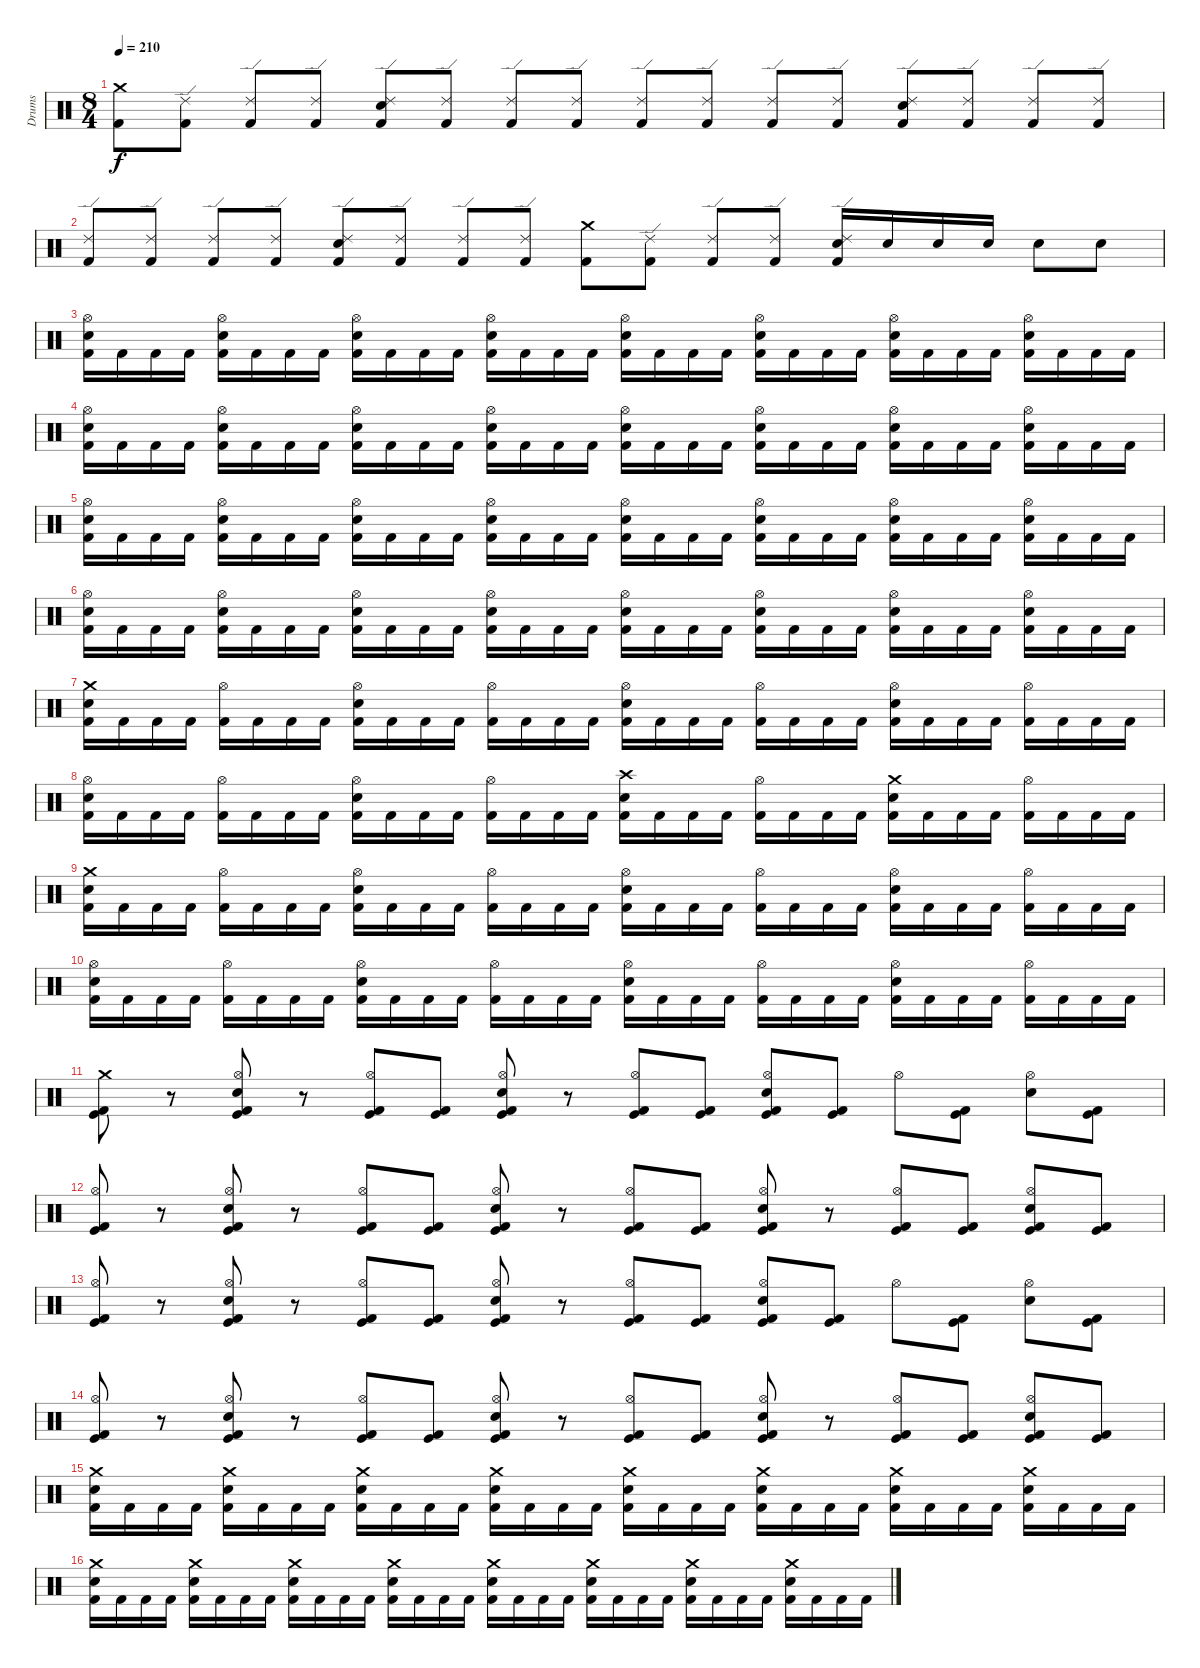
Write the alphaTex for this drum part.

\track ("Drums" "Drums") {instrument percussion}
\staff {score}
\articulation defaults
\ts (8 4)
\tempo 210
\clef neutral
\ks c
("Crash medium (hit)" "Kick (hit) 2").8{dy f} ("Ride (edge) 2" "Kick (hit) 2").8 ("Ride (edge) 2" "Kick (hit) 2").8 ("Ride (edge) 2" "Kick (hit) 2").8 ("Ride (edge) 2" "Electric Snare (hit)" "Kick (hit) 2").8 ("Ride (edge) 2" "Kick (hit) 2").8 ("Ride (edge) 2" "Kick (hit) 2").8 ("Ride (edge) 2" "Kick (hit) 2").8 ("Ride (edge) 2" "Kick (hit) 2").8 ("Ride (edge) 2" "Kick (hit) 2").8 ("Ride (edge) 2" "Kick (hit) 2").8 ("Ride (edge) 2" "Kick (hit) 2").8 ("Ride (edge) 2" "Electric Snare (hit)" "Kick (hit) 2").8 ("Ride (edge) 2" "Kick (hit) 2").8 ("Ride (edge) 2" "Kick (hit) 2").8 ("Ride (edge) 2" "Kick (hit) 2").8 |
("Ride (edge) 2" "Kick (hit) 2").8 ("Ride (edge) 2" "Kick (hit) 2").8 ("Ride (edge) 2" "Kick (hit) 2").8 ("Ride (edge) 2" "Kick (hit) 2").8 ("Ride (edge) 2" "Electric Snare (hit)" "Kick (hit) 2").8 ("Ride (edge) 2" "Kick (hit) 2").8 ("Ride (edge) 2" "Kick (hit) 2").8 ("Ride (edge) 2" "Kick (hit) 2").8 ("Crash medium (hit)" "Kick (hit) 2").8 ("Ride (edge) 2" "Kick (hit) 2").8 ("Ride (edge) 2" "Kick (hit) 2").8 ("Ride (edge) 2" "Kick (hit) 2").8 ("Ride (edge) 2" "Electric Snare (hit)" "Kick (hit) 2").16 "Electric Snare (hit)".16 "Electric Snare (hit)".16 "Electric Snare (hit)".16 "Electric Snare (hit)".8 "Electric Snare (hit)".8 |
("Hi-Hat (open)" "Electric Snare (hit)" "Kick (hit) 2").16 "Kick (hit) 2".16 "Kick (hit) 2".16 "Kick (hit) 2".16 ("Hi-Hat (open)" "Electric Snare (hit)" "Kick (hit) 2").16 "Kick (hit) 2".16 "Kick (hit) 2".16 "Kick (hit) 2".16 ("Hi-Hat (open)" "Electric Snare (hit)" "Kick (hit) 2").16 "Kick (hit) 2".16 "Kick (hit) 2".16 "Kick (hit) 2".16 ("Hi-Hat (open)" "Electric Snare (hit)" "Kick (hit) 2").16 "Kick (hit) 2".16 "Kick (hit) 2".16 "Kick (hit) 2".16 ("Hi-Hat (open)" "Electric Snare (hit)" "Kick (hit) 2").16 "Kick (hit) 2".16 "Kick (hit) 2".16 "Kick (hit) 2".16 ("Hi-Hat (open)" "Electric Snare (hit)" "Kick (hit) 2").16 "Kick (hit) 2".16 "Kick (hit) 2".16 "Kick (hit) 2".16 ("Hi-Hat (open)" "Electric Snare (hit)" "Kick (hit) 2").16 "Kick (hit) 2".16 "Kick (hit) 2".16 "Kick (hit) 2".16 ("Hi-Hat (open)" "Electric Snare (hit)" "Kick (hit) 2").16 "Kick (hit) 2".16 "Kick (hit) 2".16 "Kick (hit) 2".16 |
("Hi-Hat (open)" "Electric Snare (hit)" "Kick (hit) 2").16 "Kick (hit) 2".16 "Kick (hit) 2".16 "Kick (hit) 2".16 ("Hi-Hat (open)" "Electric Snare (hit)" "Kick (hit) 2").16 "Kick (hit) 2".16 "Kick (hit) 2".16 "Kick (hit) 2".16 ("Hi-Hat (open)" "Electric Snare (hit)" "Kick (hit) 2").16 "Kick (hit) 2".16 "Kick (hit) 2".16 "Kick (hit) 2".16 ("Hi-Hat (open)" "Electric Snare (hit)" "Kick (hit) 2").16 "Kick (hit) 2".16 "Kick (hit) 2".16 "Kick (hit) 2".16 ("Hi-Hat (open)" "Electric Snare (hit)" "Kick (hit) 2").16 "Kick (hit) 2".16 "Kick (hit) 2".16 "Kick (hit) 2".16 ("Hi-Hat (open)" "Electric Snare (hit)" "Kick (hit) 2").16 "Kick (hit) 2".16 "Kick (hit) 2".16 "Kick (hit) 2".16 ("Hi-Hat (open)" "Electric Snare (hit)" "Kick (hit) 2").16 "Kick (hit) 2".16 "Kick (hit) 2".16 "Kick (hit) 2".16 ("Hi-Hat (open)" "Electric Snare (hit)" "Kick (hit) 2").16 "Kick (hit) 2".16 "Kick (hit) 2".16 "Kick (hit) 2".16 |
("Hi-Hat (open)" "Electric Snare (hit)" "Kick (hit) 2").16 "Kick (hit) 2".16 "Kick (hit) 2".16 "Kick (hit) 2".16 ("Hi-Hat (open)" "Electric Snare (hit)" "Kick (hit) 2").16 "Kick (hit) 2".16 "Kick (hit) 2".16 "Kick (hit) 2".16 ("Hi-Hat (open)" "Electric Snare (hit)" "Kick (hit) 2").16 "Kick (hit) 2".16 "Kick (hit) 2".16 "Kick (hit) 2".16 ("Hi-Hat (open)" "Electric Snare (hit)" "Kick (hit) 2").16 "Kick (hit) 2".16 "Kick (hit) 2".16 "Kick (hit) 2".16 ("Hi-Hat (open)" "Electric Snare (hit)" "Kick (hit) 2").16 "Kick (hit) 2".16 "Kick (hit) 2".16 "Kick (hit) 2".16 ("Hi-Hat (open)" "Electric Snare (hit)" "Kick (hit) 2").16 "Kick (hit) 2".16 "Kick (hit) 2".16 "Kick (hit) 2".16 ("Hi-Hat (open)" "Electric Snare (hit)" "Kick (hit) 2").16 "Kick (hit) 2".16 "Kick (hit) 2".16 "Kick (hit) 2".16 ("Hi-Hat (open)" "Electric Snare (hit)" "Kick (hit) 2").16 "Kick (hit) 2".16 "Kick (hit) 2".16 "Kick (hit) 2".16 |
("Hi-Hat (open)" "Electric Snare (hit)" "Kick (hit) 2").16 "Kick (hit) 2".16 "Kick (hit) 2".16 "Kick (hit) 2".16 ("Hi-Hat (open)" "Electric Snare (hit)" "Kick (hit) 2").16 "Kick (hit) 2".16 "Kick (hit) 2".16 "Kick (hit) 2".16 ("Hi-Hat (open)" "Electric Snare (hit)" "Kick (hit) 2").16 "Kick (hit) 2".16 "Kick (hit) 2".16 "Kick (hit) 2".16 ("Hi-Hat (open)" "Electric Snare (hit)" "Kick (hit) 2").16 "Kick (hit) 2".16 "Kick (hit) 2".16 "Kick (hit) 2".16 ("Hi-Hat (open)" "Electric Snare (hit)" "Kick (hit) 2").16 "Kick (hit) 2".16 "Kick (hit) 2".16 "Kick (hit) 2".16 ("Hi-Hat (open)" "Electric Snare (hit)" "Kick (hit) 2").16 "Kick (hit) 2".16 "Kick (hit) 2".16 "Kick (hit) 2".16 ("Hi-Hat (open)" "Electric Snare (hit)" "Kick (hit) 2").16 "Kick (hit) 2".16 "Kick (hit) 2".16 "Kick (hit) 2".16 ("Hi-Hat (open)" "Electric Snare (hit)" "Kick (hit) 2").16 "Kick (hit) 2".16 "Kick (hit) 2".16 "Kick (hit) 2".16 |
("Crash medium (hit)" "Electric Snare (hit)" "Kick (hit) 2").16 "Kick (hit) 2".16 "Kick (hit) 2".16 "Kick (hit) 2".16 ("Hi-Hat (open)" "Kick (hit) 2").16 "Kick (hit) 2".16 "Kick (hit) 2".16 "Kick (hit) 2".16 ("Hi-Hat (open)" "Electric Snare (hit)" "Kick (hit) 2").16 "Kick (hit) 2".16 "Kick (hit) 2".16 "Kick (hit) 2".16 ("Hi-Hat (open)" "Kick (hit) 2").16 "Kick (hit) 2".16 "Kick (hit) 2".16 "Kick (hit) 2".16 ("Hi-Hat (open)" "Electric Snare (hit)" "Kick (hit) 2").16 "Kick (hit) 2".16 "Kick (hit) 2".16 "Kick (hit) 2".16 ("Hi-Hat (open)" "Kick (hit) 2").16 "Kick (hit) 2".16 "Kick (hit) 2".16 "Kick (hit) 2".16 ("Hi-Hat (open)" "Electric Snare (hit)" "Kick (hit) 2").16 "Kick (hit) 2".16 "Kick (hit) 2".16 "Kick (hit) 2".16 ("Hi-Hat (open)" "Kick (hit) 2").16 "Kick (hit) 2".16 "Kick (hit) 2".16 "Kick (hit) 2".16 |
("Hi-Hat (open)" "Electric Snare (hit)" "Kick (hit) 2").16 "Kick (hit) 2".16 "Kick (hit) 2".16 "Kick (hit) 2".16 ("Hi-Hat (open)" "Kick (hit) 2").16 "Kick (hit) 2".16 "Kick (hit) 2".16 "Kick (hit) 2".16 ("Hi-Hat (open)" "Electric Snare (hit)" "Kick (hit) 2").16 "Kick (hit) 2".16 "Kick (hit) 2".16 "Kick (hit) 2".16 ("Hi-Hat (open)" "Kick (hit) 2").16 "Kick (hit) 2".16 "Kick (hit) 2".16 "Kick (hit) 2".16 ("Crash high (hit)" "Electric Snare (hit)" "Kick (hit) 2").16 "Kick (hit) 2".16 "Kick (hit) 2".16 "Kick (hit) 2".16 ("Hi-Hat (open)" "Kick (hit) 2").16 "Kick (hit) 2".16 "Kick (hit) 2".16 "Kick (hit) 2".16 ("Crash medium (hit)" "Electric Snare (hit)" "Kick (hit) 2").16 "Kick (hit) 2".16 "Kick (hit) 2".16 "Kick (hit) 2".16 ("Hi-Hat (open)" "Kick (hit) 2").16 "Kick (hit) 2".16 "Kick (hit) 2".16 "Kick (hit) 2".16 |
("Crash medium (hit)" "Electric Snare (hit)" "Kick (hit) 2").16 "Kick (hit) 2".16 "Kick (hit) 2".16 "Kick (hit) 2".16 ("Hi-Hat (open)" "Kick (hit) 2").16 "Kick (hit) 2".16 "Kick (hit) 2".16 "Kick (hit) 2".16 ("Hi-Hat (open)" "Electric Snare (hit)" "Kick (hit) 2").16 "Kick (hit) 2".16 "Kick (hit) 2".16 "Kick (hit) 2".16 ("Hi-Hat (open)" "Kick (hit) 2").16 "Kick (hit) 2".16 "Kick (hit) 2".16 "Kick (hit) 2".16 ("Hi-Hat (open)" "Electric Snare (hit)" "Kick (hit) 2").16 "Kick (hit) 2".16 "Kick (hit) 2".16 "Kick (hit) 2".16 ("Hi-Hat (open)" "Kick (hit) 2").16 "Kick (hit) 2".16 "Kick (hit) 2".16 "Kick (hit) 2".16 ("Hi-Hat (open)" "Electric Snare (hit)" "Kick (hit) 2").16 "Kick (hit) 2".16 "Kick (hit) 2".16 "Kick (hit) 2".16 ("Hi-Hat (open)" "Kick (hit) 2").16 "Kick (hit) 2".16 "Kick (hit) 2".16 "Kick (hit) 2".16 |
("Hi-Hat (open)" "Electric Snare (hit)" "Kick (hit) 2").16 "Kick (hit) 2".16 "Kick (hit) 2".16 "Kick (hit) 2".16 ("Hi-Hat (open)" "Kick (hit) 2").16 "Kick (hit) 2".16 "Kick (hit) 2".16 "Kick (hit) 2".16 ("Hi-Hat (open)" "Electric Snare (hit)" "Kick (hit) 2").16 "Kick (hit) 2".16 "Kick (hit) 2".16 "Kick (hit) 2".16 ("Hi-Hat (open)" "Kick (hit) 2").16 "Kick (hit) 2".16 "Kick (hit) 2".16 "Kick (hit) 2".16 ("Hi-Hat (open)" "Electric Snare (hit)" "Kick (hit) 2").16 "Kick (hit) 2".16 "Kick (hit) 2".16 "Kick (hit) 2".16 ("Hi-Hat (open)" "Kick (hit) 2").16 "Kick (hit) 2".16 "Kick (hit) 2".16 "Kick (hit) 2".16 ("Hi-Hat (open)" "Electric Snare (hit)" "Kick (hit) 2").16 "Kick (hit) 2".16 "Kick (hit) 2".16 "Kick (hit) 2".16 ("Hi-Hat (open)" "Kick (hit) 2").16 "Kick (hit) 2".16 "Kick (hit) 2".16 "Kick (hit) 2".16 |
("Crash medium (hit)" "Kick (hit)" "Kick (hit) 2").8 r.8 ("Hi-Hat (open)" "Electric Snare (hit)" "Kick (hit)" "Kick (hit) 2").8 r.8 ("Hi-Hat (open)" "Kick (hit)" "Kick (hit) 2").8 ("Kick (hit)" "Kick (hit) 2").8 ("Hi-Hat (open)" "Electric Snare (hit)" "Kick (hit)" "Kick (hit) 2").8 r.8 ("Hi-Hat (open)" "Kick (hit)" "Kick (hit) 2").8 ("Kick (hit)" "Kick (hit) 2").8 ("Hi-Hat (open)" "Electric Snare (hit)" "Kick (hit)" "Kick (hit) 2").8 ("Kick (hit)" "Kick (hit) 2").8 "Hi-Hat (open)".8 ("Kick (hit)" "Kick (hit) 2").8 ("Hi-Hat (open)" "Electric Snare (hit)").8 ("Kick (hit)" "Kick (hit) 2").8 |
("Hi-Hat (open)" "Kick (hit)" "Kick (hit) 2").8 r.8 ("Hi-Hat (open)" "Electric Snare (hit)" "Kick (hit)" "Kick (hit) 2").8 r.8 ("Hi-Hat (open)" "Kick (hit)" "Kick (hit) 2").8 ("Kick (hit)" "Kick (hit) 2").8 ("Hi-Hat (open)" "Electric Snare (hit)" "Kick (hit)" "Kick (hit) 2").8 r.8 ("Hi-Hat (open)" "Kick (hit)" "Kick (hit) 2").8 ("Kick (hit)" "Kick (hit) 2").8 ("Hi-Hat (open)" "Electric Snare (hit)" "Kick (hit)" "Kick (hit) 2").8 r.8 ("Hi-Hat (open)" "Kick (hit)" "Kick (hit) 2").8 ("Kick (hit)" "Kick (hit) 2").8 ("Hi-Hat (open)" "Electric Snare (hit)" "Kick (hit)" "Kick (hit) 2").8 ("Kick (hit)" "Kick (hit) 2").8 |
("Hi-Hat (open)" "Kick (hit)" "Kick (hit) 2").8 r.8 ("Hi-Hat (open)" "Electric Snare (hit)" "Kick (hit)" "Kick (hit) 2").8 r.8 ("Hi-Hat (open)" "Kick (hit)" "Kick (hit) 2").8 ("Kick (hit)" "Kick (hit) 2").8 ("Hi-Hat (open)" "Electric Snare (hit)" "Kick (hit)" "Kick (hit) 2").8 r.8 ("Hi-Hat (open)" "Kick (hit)" "Kick (hit) 2").8 ("Kick (hit)" "Kick (hit) 2").8 ("Hi-Hat (open)" "Electric Snare (hit)" "Kick (hit)" "Kick (hit) 2").8 ("Kick (hit)" "Kick (hit) 2").8 "Hi-Hat (open)".8 ("Kick (hit)" "Kick (hit) 2").8 ("Hi-Hat (open)" "Electric Snare (hit)").8 ("Kick (hit)" "Kick (hit) 2").8 |
("Hi-Hat (open)" "Kick (hit)" "Kick (hit) 2").8 r.8 ("Hi-Hat (open)" "Electric Snare (hit)" "Kick (hit)" "Kick (hit) 2").8 r.8 ("Hi-Hat (open)" "Kick (hit)" "Kick (hit) 2").8 ("Kick (hit)" "Kick (hit) 2").8 ("Hi-Hat (open)" "Electric Snare (hit)" "Kick (hit)" "Kick (hit) 2").8 r.8 ("Hi-Hat (open)" "Kick (hit)" "Kick (hit) 2").8 ("Kick (hit)" "Kick (hit) 2").8 ("Hi-Hat (open)" "Electric Snare (hit)" "Kick (hit)" "Kick (hit) 2").8 r.8 ("Hi-Hat (open)" "Kick (hit)" "Kick (hit) 2").8 ("Kick (hit)" "Kick (hit) 2").8 ("Hi-Hat (open)" "Electric Snare (hit)" "Kick (hit)" "Kick (hit) 2").8 ("Kick (hit)" "Kick (hit) 2").8 |
("Crash medium (hit)" "Electric Snare (hit)" "Kick (hit) 2").16 "Kick (hit) 2".16 "Kick (hit) 2".16 "Kick (hit) 2".16 ("Crash medium (hit)" "Electric Snare (hit)" "Kick (hit) 2").16 "Kick (hit) 2".16 "Kick (hit) 2".16 "Kick (hit) 2".16 ("Crash medium (hit)" "Electric Snare (hit)" "Kick (hit) 2").16 "Kick (hit) 2".16 "Kick (hit) 2".16 "Kick (hit) 2".16 ("Crash medium (hit)" "Electric Snare (hit)" "Kick (hit) 2").16 "Kick (hit) 2".16 "Kick (hit) 2".16 "Kick (hit) 2".16 ("Crash medium (hit)" "Electric Snare (hit)" "Kick (hit) 2").16 "Kick (hit) 2".16 "Kick (hit) 2".16 "Kick (hit) 2".16 ("Crash medium (hit)" "Electric Snare (hit)" "Kick (hit) 2").16 "Kick (hit) 2".16 "Kick (hit) 2".16 "Kick (hit) 2".16 ("Crash medium (hit)" "Electric Snare (hit)" "Kick (hit) 2").16 "Kick (hit) 2".16 "Kick (hit) 2".16 "Kick (hit) 2".16 ("Crash medium (hit)" "Electric Snare (hit)" "Kick (hit) 2").16 "Kick (hit) 2".16 "Kick (hit) 2".16 "Kick (hit) 2".16 |
("Crash medium (hit)" "Electric Snare (hit)" "Kick (hit) 2").16 "Kick (hit) 2".16 "Kick (hit) 2".16 "Kick (hit) 2".16 ("Crash medium (hit)" "Electric Snare (hit)" "Kick (hit) 2").16 "Kick (hit) 2".16 "Kick (hit) 2".16 "Kick (hit) 2".16 ("Crash medium (hit)" "Electric Snare (hit)" "Kick (hit) 2").16 "Kick (hit) 2".16 "Kick (hit) 2".16 "Kick (hit) 2".16 ("Crash medium (hit)" "Electric Snare (hit)" "Kick (hit) 2").16 "Kick (hit) 2".16 "Kick (hit) 2".16 "Kick (hit) 2".16 ("Crash medium (hit)" "Electric Snare (hit)" "Kick (hit) 2").16 "Kick (hit) 2".16 "Kick (hit) 2".16 "Kick (hit) 2".16 ("Crash medium (hit)" "Electric Snare (hit)" "Kick (hit) 2").16 "Kick (hit) 2".16 "Kick (hit) 2".16 "Kick (hit) 2".16 ("Crash medium (hit)" "Electric Snare (hit)" "Kick (hit) 2").16 "Kick (hit) 2".16 "Kick (hit) 2".16 "Kick (hit) 2".16 ("Crash medium (hit)" "Electric Snare (hit)" "Kick (hit) 2").16 "Kick (hit) 2".16 "Kick (hit) 2".16 "Kick (hit) 2".16
